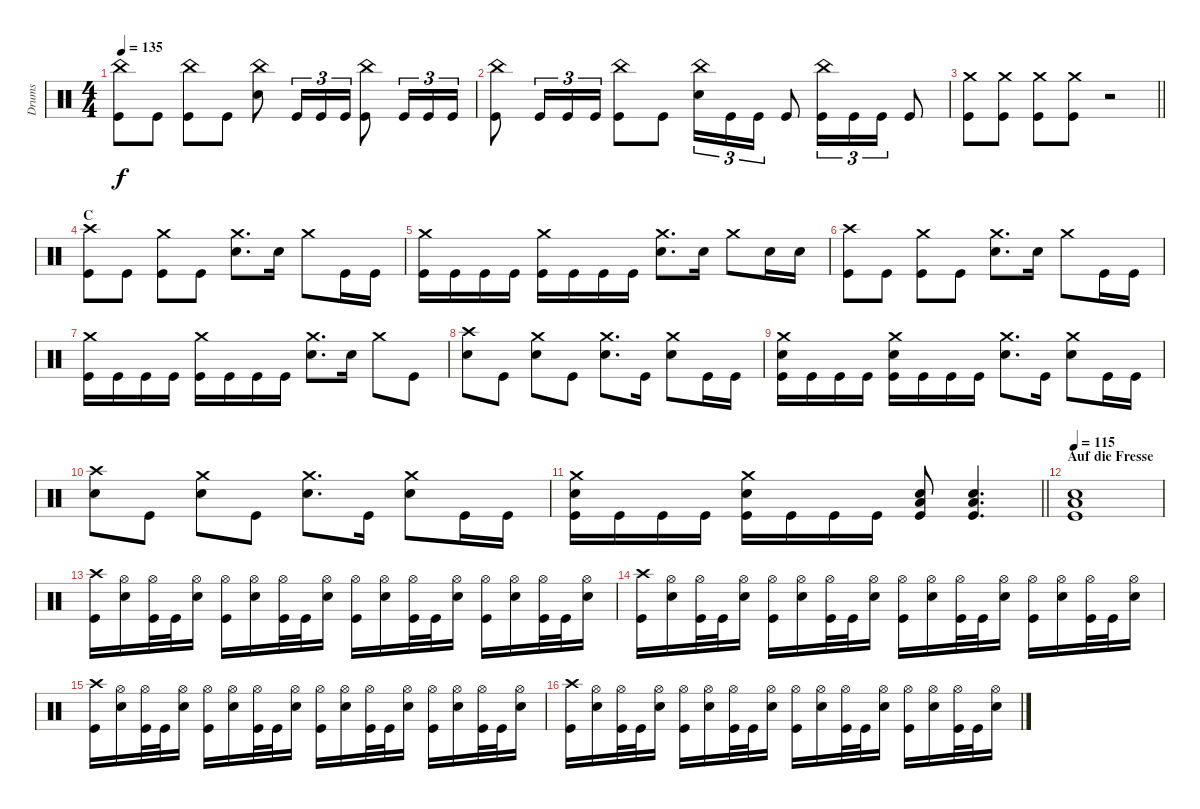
\track ("Drums" "Drums") {instrument percussion}
\staff {score}
\articulation defaults
\ts (4 4)
\tempo 135
\clef neutral
\ks c
("China (hit)" "Kick (hit)").8{dy f} "Kick (hit)".8 ("China (hit)" "Kick (hit)").8 "Kick (hit)".8 ("China (hit)" "Electric Snare (hit)").8 "Kick (hit)".16{tu (3 2)} "Kick (hit)".16{tu (3 2)} "Kick (hit)".16{tu (3 2)} ("China (hit)" "Kick (hit)").8 "Kick (hit)".16{tu (3 2)} "Kick (hit)".16{tu (3 2)} "Kick (hit)".16{tu (3 2)} |
("China (hit)" "Kick (hit)").8 "Kick (hit)".16{tu (3 2)} "Kick (hit)".16{tu (3 2)} "Kick (hit)".16{tu (3 2)} ("China (hit)" "Kick (hit)").8 "Kick (hit)".8 ("China (hit)" "Electric Snare (hit)").16{tu (3 2)} "Kick (hit)".16{tu (3 2)} "Kick (hit)".16{tu (3 2)} "Kick (hit)".8 ("China (hit)" "Kick (hit)").16{tu (3 2)} "Kick (hit)".16{tu (3 2)} "Kick (hit)".16{tu (3 2)} "Kick (hit)".8 |
\barLineRight lightlight
("Crash medium (hit)" "Kick (hit)").8 ("Crash medium (hit)" "Kick (hit)").8 ("Crash medium (hit)" "Kick (hit)").8 ("Crash medium (hit)" "Kick (hit)").8 r.2 |
\section ("" "C")
("Crash high (hit)" "Kick (hit)").8 "Kick (hit)".8 ("Crash medium (hit)" "Kick (hit)").8 "Kick (hit)".8 ("Crash medium (hit)" "Electric Snare (hit)").8{d} "Electric Snare (hit)".16 "Crash medium (hit)".8 "Kick (hit)".16 "Kick (hit)".16 |
("Crash medium (hit)" "Kick (hit)").16 "Kick (hit)".16 "Kick (hit)".16 "Kick (hit)".16 ("Crash medium (hit)" "Kick (hit)").16 "Kick (hit)".16 "Kick (hit)".16 "Kick (hit)".16 ("Crash medium (hit)" "Electric Snare (hit)").8{d} "Electric Snare (hit)".16 "Crash medium (hit)".8 "Electric Snare (hit)".16 "Electric Snare (hit)".16 |
("Crash high (hit)" "Kick (hit)").8 "Kick (hit)".8 ("Crash medium (hit)" "Kick (hit)").8 "Kick (hit)".8 ("Crash medium (hit)" "Electric Snare (hit)").8{d} "Electric Snare (hit)".16 "Crash medium (hit)".8 "Kick (hit)".16 "Kick (hit)".16 |
("Crash medium (hit)" "Kick (hit)").16 "Kick (hit)".16 "Kick (hit)".16 "Kick (hit)".16 ("Crash medium (hit)" "Kick (hit)").16 "Kick (hit)".16 "Kick (hit)".16 "Kick (hit)".16 ("Crash medium (hit)" "Electric Snare (hit)").8{d} "Electric Snare (hit)".16 "Crash medium (hit)".8 "Kick (hit)".8 |
("Crash high (hit)" "Electric Snare (hit)").8 "Kick (hit)".8 ("Crash medium (hit)" "Electric Snare (hit)").8 "Kick (hit)".8 ("Crash medium (hit)" "Electric Snare (hit)").8{d} "Kick (hit)".16 ("Crash medium (hit)" "Electric Snare (hit)").8 "Kick (hit)".16 "Kick (hit)".16 |
("Crash medium (hit)" "Electric Snare (hit)" "Kick (hit)").16 "Kick (hit)".16 "Kick (hit)".16 "Kick (hit)".16 ("Crash medium (hit)" "Electric Snare (hit)" "Kick (hit)").16 "Kick (hit)".16 "Kick (hit)".16 "Kick (hit)".16 ("Crash medium (hit)" "Electric Snare (hit)").8{d} "Kick (hit)".16 ("Crash medium (hit)" "Electric Snare (hit)").8 "Kick (hit)".16 "Kick (hit)".16 |
("Crash high (hit)" "Electric Snare (hit)").8 "Kick (hit)".8 ("Crash medium (hit)" "Electric Snare (hit)").8 "Kick (hit)".8 ("Crash medium (hit)" "Electric Snare (hit)").8{d} "Kick (hit)".16 ("Crash medium (hit)" "Electric Snare (hit)").8 "Kick (hit)".16 "Kick (hit)".16 |
\barLineRight lightlight
("Crash medium (hit)" "Electric Snare (hit)" "Kick (hit)").16 "Kick (hit)".16 "Kick (hit)".16 "Kick (hit)".16 ("Crash medium (hit)" "Electric Snare (hit)" "Kick (hit)").16 "Kick (hit)".16 "Kick (hit)".16 "Kick (hit)".16 ("Low Floor Tom (hit)" "Electric Snare (hit)" "Kick (hit)").8 ("Low Floor Tom (hit)" "Electric Snare (hit)" "Kick (hit)").4{d} |
\section ("" "Auf die Fresse")
\tempo 115
("Low Floor Tom (hit)" "Electric Snare (hit)" "Kick (hit)").1 |
("Crash high (hit)" "Kick (hit)").16 ("Hi-Hat (open)" "Electric Snare (hit)").16 ("Hi-Hat (open)" "Kick (hit)").32 "Kick (hit)".32 ("Hi-Hat (open)" "Electric Snare (hit)").16 ("Hi-Hat (open)" "Kick (hit)").16 ("Hi-Hat (open)" "Electric Snare (hit)").16 ("Hi-Hat (open)" "Kick (hit)").32 "Kick (hit)".32 ("Hi-Hat (open)" "Electric Snare (hit)").16 ("Hi-Hat (open)" "Kick (hit)").16 ("Hi-Hat (open)" "Electric Snare (hit)").16 ("Hi-Hat (open)" "Kick (hit)").32 "Kick (hit)".32 ("Hi-Hat (open)" "Electric Snare (hit)").16 ("Hi-Hat (open)" "Kick (hit)").16 ("Hi-Hat (open)" "Electric Snare (hit)").16 ("Hi-Hat (open)" "Kick (hit)").32 "Kick (hit)".32 ("Hi-Hat (open)" "Electric Snare (hit)").16 |
("Crash high (hit)" "Kick (hit)").16 ("Hi-Hat (open)" "Electric Snare (hit)").16 ("Hi-Hat (open)" "Kick (hit)").32 "Kick (hit)".32 ("Hi-Hat (open)" "Electric Snare (hit)").16 ("Hi-Hat (open)" "Kick (hit)").16 ("Hi-Hat (open)" "Electric Snare (hit)").16 ("Hi-Hat (open)" "Kick (hit)").32 "Kick (hit)".32 ("Hi-Hat (open)" "Electric Snare (hit)").16 ("Hi-Hat (open)" "Kick (hit)").16 ("Hi-Hat (open)" "Electric Snare (hit)").16 ("Hi-Hat (open)" "Kick (hit)").32 "Kick (hit)".32 ("Hi-Hat (open)" "Electric Snare (hit)").16 ("Hi-Hat (open)" "Kick (hit)").16 ("Hi-Hat (open)" "Electric Snare (hit)").16 ("Hi-Hat (open)" "Kick (hit)").32 "Kick (hit)".32 ("Hi-Hat (open)" "Electric Snare (hit)").16 |
("Crash high (hit)" "Kick (hit)").16 ("Hi-Hat (open)" "Electric Snare (hit)").16 ("Hi-Hat (open)" "Kick (hit)").32 "Kick (hit)".32 ("Hi-Hat (open)" "Electric Snare (hit)").16 ("Hi-Hat (open)" "Kick (hit)").16 ("Hi-Hat (open)" "Electric Snare (hit)").16 ("Hi-Hat (open)" "Kick (hit)").32 "Kick (hit)".32 ("Hi-Hat (open)" "Electric Snare (hit)").16 ("Hi-Hat (open)" "Kick (hit)").16 ("Hi-Hat (open)" "Electric Snare (hit)").16 ("Hi-Hat (open)" "Kick (hit)").32 "Kick (hit)".32 ("Hi-Hat (open)" "Electric Snare (hit)").16 ("Hi-Hat (open)" "Kick (hit)").16 ("Hi-Hat (open)" "Electric Snare (hit)").16 ("Hi-Hat (open)" "Kick (hit)").32 "Kick (hit)".32 ("Hi-Hat (open)" "Electric Snare (hit)").16 |
("Crash high (hit)" "Kick (hit)").16 ("Hi-Hat (open)" "Electric Snare (hit)").16 ("Hi-Hat (open)" "Kick (hit)").32 "Kick (hit)".32 ("Hi-Hat (open)" "Electric Snare (hit)").16 ("Hi-Hat (open)" "Kick (hit)").16 ("Hi-Hat (open)" "Electric Snare (hit)").16 ("Hi-Hat (open)" "Kick (hit)").32 "Kick (hit)".32 ("Hi-Hat (open)" "Electric Snare (hit)").16 ("Hi-Hat (open)" "Kick (hit)").16 ("Hi-Hat (open)" "Electric Snare (hit)").16 ("Hi-Hat (open)" "Kick (hit)").32 "Kick (hit)".32 ("Hi-Hat (open)" "Electric Snare (hit)").16 ("Hi-Hat (open)" "Kick (hit)").16 ("Hi-Hat (open)" "Electric Snare (hit)").16 ("Hi-Hat (open)" "Kick (hit)").32 "Kick (hit)".32 ("Hi-Hat (open)" "Electric Snare (hit)").16
